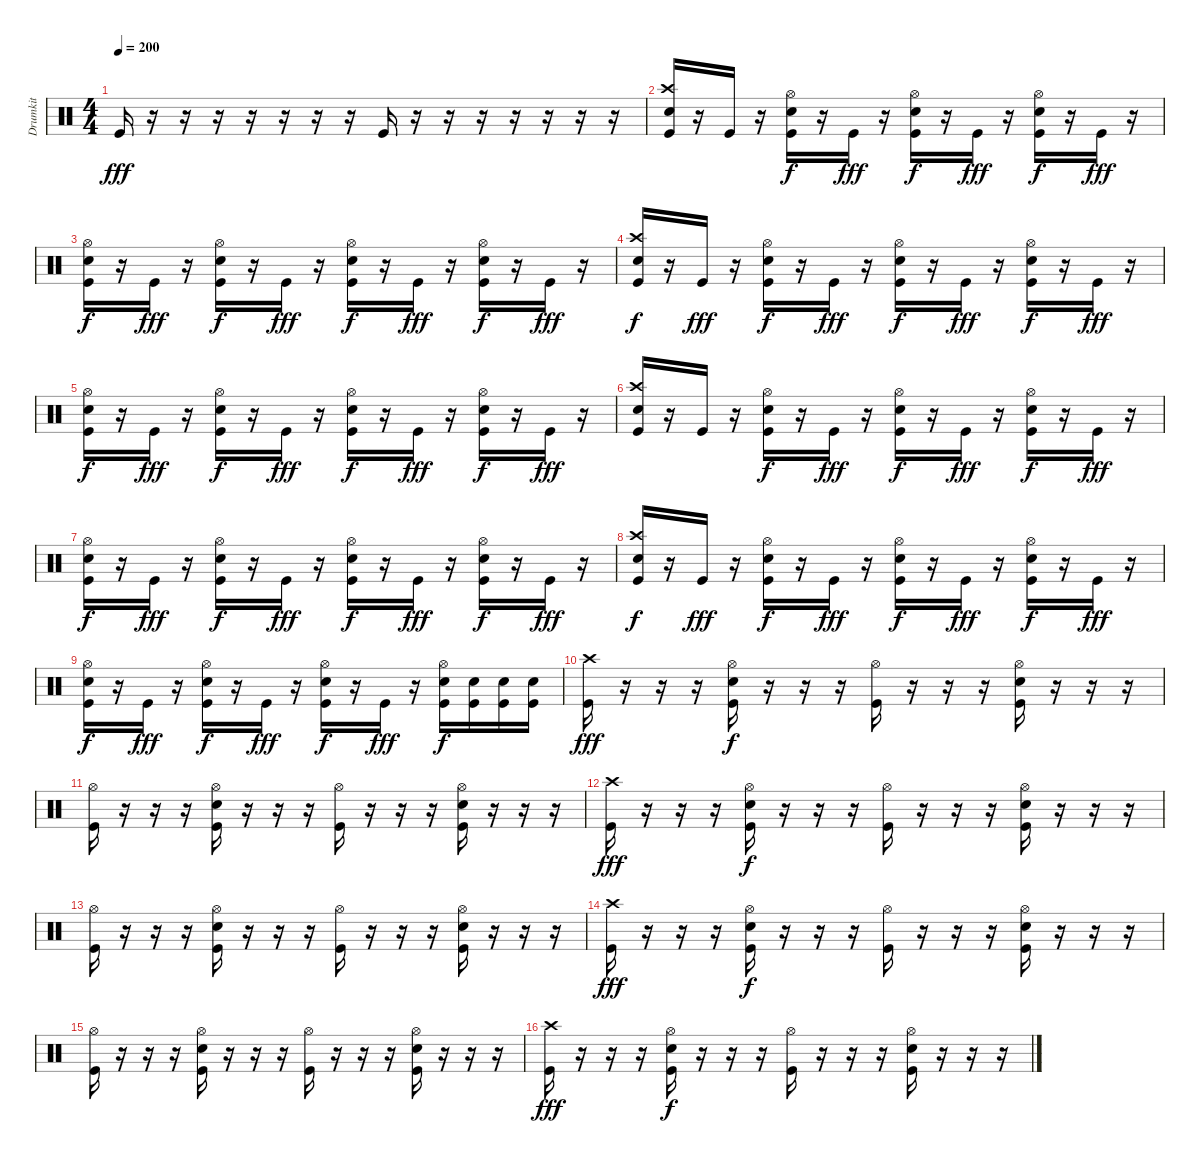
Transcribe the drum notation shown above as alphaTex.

\track ("Drumkit" "Drumkit") {instrument percussion}
\staff {score}
\articulation defaults
\ts (4 4)
\tempo 200
\clef neutral
\ks c "Kick (hit)".16{dy fff}
r.16 r.16 r.16 r.16 r.16 r.16 r.16 "Kick (hit)".16 r.16 r.16 r.16 r.16 r.16 r.16 r.16 |
("Crash high (hit)" "Snare (hit) 2" "Kick (hit)").16 r.16 "Kick (hit)".16 r.16 ("Hi-Hat (open)" "Snare (hit) 2" "Kick (hit)").16{dy f} r.16 "Kick (hit)".16{dy fff} r.16 ("Hi-Hat (open)" "Snare (hit) 2" "Kick (hit)").16{dy f} r.16 "Kick (hit)".16{dy fff} r.16 ("Hi-Hat (open)" "Snare (hit) 2" "Kick (hit)").16{dy f} r.16 "Kick (hit)".16{dy fff} r.16 |
("Hi-Hat (open)" "Snare (hit) 2" "Kick (hit)").16{dy f} r.16 "Kick (hit)".16{dy fff} r.16 ("Hi-Hat (open)" "Snare (hit) 2" "Kick (hit)").16{dy f} r.16 "Kick (hit)".16{dy fff} r.16 ("Hi-Hat (open)" "Snare (hit) 2" "Kick (hit)").16{dy f} r.16 "Kick (hit)".16{dy fff} r.16 ("Hi-Hat (open)" "Snare (hit) 2" "Kick (hit)").16{dy f} r.16 "Kick (hit)".16{dy fff} r.16 |
("Crash high (hit)" "Snare (hit) 2" "Kick (hit)").16{dy f} r.16 "Kick (hit)".16{dy fff} r.16 ("Hi-Hat (open)" "Snare (hit) 2" "Kick (hit)").16{dy f} r.16 "Kick (hit)".16{dy fff} r.16 ("Hi-Hat (open)" "Snare (hit) 2" "Kick (hit)").16{dy f} r.16 "Kick (hit)".16{dy fff} r.16 ("Hi-Hat (open)" "Snare (hit) 2" "Kick (hit)").16{dy f} r.16 "Kick (hit)".16{dy fff} r.16 |
("Hi-Hat (open)" "Snare (hit) 2" "Kick (hit)").16{dy f} r.16 "Kick (hit)".16{dy fff} r.16 ("Hi-Hat (open)" "Snare (hit) 2" "Kick (hit)").16{dy f} r.16 "Kick (hit)".16{dy fff} r.16 ("Hi-Hat (open)" "Snare (hit) 2" "Kick (hit)").16{dy f} r.16 "Kick (hit)".16{dy fff} r.16 ("Hi-Hat (open)" "Snare (hit) 2" "Kick (hit)").16{dy f} r.16 "Kick (hit)".16{dy fff} r.16 |
("Crash high (hit)" "Snare (hit) 2" "Kick (hit)").16 r.16 "Kick (hit)".16 r.16 ("Hi-Hat (open)" "Snare (hit) 2" "Kick (hit)").16{dy f} r.16 "Kick (hit)".16{dy fff} r.16 ("Hi-Hat (open)" "Snare (hit) 2" "Kick (hit)").16{dy f} r.16 "Kick (hit)".16{dy fff} r.16 ("Hi-Hat (open)" "Snare (hit) 2" "Kick (hit)").16{dy f} r.16 "Kick (hit)".16{dy fff} r.16 |
("Hi-Hat (open)" "Snare (hit) 2" "Kick (hit)").16{dy f} r.16 "Kick (hit)".16{dy fff} r.16 ("Hi-Hat (open)" "Snare (hit) 2" "Kick (hit)").16{dy f} r.16 "Kick (hit)".16{dy fff} r.16 ("Hi-Hat (open)" "Snare (hit) 2" "Kick (hit)").16{dy f} r.16 "Kick (hit)".16{dy fff} r.16 ("Hi-Hat (open)" "Snare (hit) 2" "Kick (hit)").16{dy f} r.16 "Kick (hit)".16{dy fff} r.16 |
("Crash high (hit)" "Snare (hit) 2" "Kick (hit)").16{dy f} r.16 "Kick (hit)".16{dy fff} r.16 ("Hi-Hat (open)" "Snare (hit) 2" "Kick (hit)").16{dy f} r.16 "Kick (hit)".16{dy fff} r.16 ("Hi-Hat (open)" "Snare (hit) 2" "Kick (hit)").16{dy f} r.16 "Kick (hit)".16{dy fff} r.16 ("Hi-Hat (open)" "Snare (hit) 2" "Kick (hit)").16{dy f} r.16 "Kick (hit)".16{dy fff} r.16 |
("Hi-Hat (open)" "Snare (hit) 2" "Kick (hit)").16{dy f} r.16 "Kick (hit)".16{dy fff} r.16 ("Hi-Hat (open)" "Snare (hit) 2" "Kick (hit)").16{dy f} r.16 "Kick (hit)".16{dy fff} r.16 ("Hi-Hat (open)" "Snare (hit) 2" "Kick (hit)").16{dy f} r.16 "Kick (hit)".16{dy fff} r.16 ("Hi-Hat (open)" "Snare (hit) 2" "Kick (hit)").16{dy f} ("Snare (hit) 2" "Kick (hit)").16 ("Snare (hit) 2" "Kick (hit)").16 ("Snare (hit) 2" "Kick (hit)").16 |
("Crash high (hit)" "Kick (hit)").16{dy fff} r.16 r.16 r.16 ("Hi-Hat (open)" "Snare (hit) 2" "Kick (hit)").16{dy f} r.16 r.16 r.16 ("Hi-Hat (open)" "Kick (hit)").16 r.16 r.16 r.16 ("Hi-Hat (open)" "Snare (hit) 2" "Kick (hit)").16 r.16 r.16 r.16 |
("Hi-Hat (open)" "Kick (hit)").16 r.16 r.16 r.16 ("Hi-Hat (open)" "Snare (hit) 2" "Kick (hit)").16 r.16 r.16 r.16 ("Hi-Hat (open)" "Kick (hit)").16 r.16 r.16 r.16 ("Hi-Hat (open)" "Snare (hit) 2" "Kick (hit)").16 r.16 r.16 r.16 |
("Crash high (hit)" "Kick (hit)").16{dy fff} r.16 r.16 r.16 ("Hi-Hat (open)" "Snare (hit) 2" "Kick (hit)").16{dy f} r.16 r.16 r.16 ("Hi-Hat (open)" "Kick (hit)").16 r.16 r.16 r.16 ("Hi-Hat (open)" "Snare (hit) 2" "Kick (hit)").16 r.16 r.16 r.16 |
("Hi-Hat (open)" "Kick (hit)").16 r.16 r.16 r.16 ("Hi-Hat (open)" "Snare (hit) 2" "Kick (hit)").16 r.16 r.16 r.16 ("Hi-Hat (open)" "Kick (hit)").16 r.16 r.16 r.16 ("Hi-Hat (open)" "Snare (hit) 2" "Kick (hit)").16 r.16 r.16 r.16 |
("Crash high (hit)" "Kick (hit)").16{dy fff} r.16 r.16 r.16 ("Hi-Hat (open)" "Snare (hit) 2" "Kick (hit)").16{dy f} r.16 r.16 r.16 ("Hi-Hat (open)" "Kick (hit)").16 r.16 r.16 r.16 ("Hi-Hat (open)" "Snare (hit) 2" "Kick (hit)").16 r.16 r.16 r.16 |
("Hi-Hat (open)" "Kick (hit)").16 r.16 r.16 r.16 ("Hi-Hat (open)" "Snare (hit) 2" "Kick (hit)").16 r.16 r.16 r.16 ("Hi-Hat (open)" "Kick (hit)").16 r.16 r.16 r.16 ("Hi-Hat (open)" "Snare (hit) 2" "Kick (hit)").16 r.16 r.16 r.16 |
("Crash high (hit)" "Kick (hit)").16{dy fff} r.16 r.16 r.16 ("Hi-Hat (open)" "Snare (hit) 2" "Kick (hit)").16{dy f} r.16 r.16 r.16 ("Hi-Hat (open)" "Kick (hit)").16 r.16 r.16 r.16 ("Hi-Hat (open)" "Snare (hit) 2" "Kick (hit)").16 r.16 r.16 r.16
